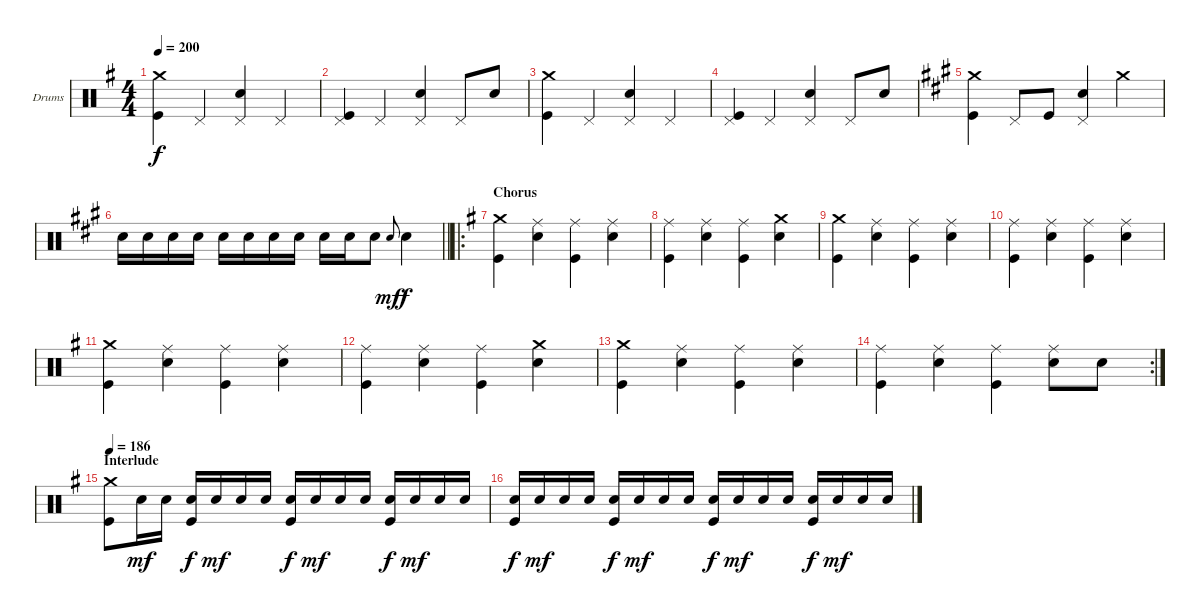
\bracketExtendMode groupsimilarinstruments
\firstSystemTrackNameOrientation horizontal
\otherSystemsTrackNameOrientation horizontal
\track ("Drums" "Drums") {instrument percussion}
\staff {score}
\articulation defaults
\ts (4 4)
\tempo 200
\clef neutral
\ks g
("Crash medium (hit)" "Kick (hit)").4{dy f} "Pedal Hi-Hat (hit)".4 ("Pedal Hi-Hat (hit)" "Snare (hit) 2").4 "Pedal Hi-Hat (hit)".4 |
("Pedal Hi-Hat (hit)" "Kick (hit)").4 "Pedal Hi-Hat (hit)".4 ("Pedal Hi-Hat (hit)" "Snare (hit) 2").4 "Pedal Hi-Hat (hit)".8 "Snare (hit) 2".8 |
("Crash medium (hit)" "Kick (hit)").4 "Pedal Hi-Hat (hit)".4 ("Pedal Hi-Hat (hit)" "Snare (hit) 2").4 "Pedal Hi-Hat (hit)".4 |
("Pedal Hi-Hat (hit)" "Kick (hit)").4 "Pedal Hi-Hat (hit)".4 ("Pedal Hi-Hat (hit)" "Snare (hit) 2").4 "Pedal Hi-Hat (hit)".8 "Snare (hit) 2".8 |
\ks a
("Crash medium (hit)" "Kick (hit)").4 "Pedal Hi-Hat (hit)".8 "Kick (hit)".8 ("Pedal Hi-Hat (hit)" "Snare (hit) 2").4 "Crash medium (hit)".4 |
\barLineRight lightlight "Snare (hit) 2".16 "Snare (hit) 2".16 "Snare (hit) 2".16 "Snare (hit) 2".16 "Snare (hit) 2".16 "Snare (hit) 2".16 "Snare (hit) 2".16 "Snare (hit) 2".16 "Snare (hit) 2".16 "Snare (hit) 2".16 "Snare (hit) 2".8 "Snare (hit) 2".8{gr onbeat dy mf} "Snare (hit) 2".4{dy f}
|
\ro
\section ("" "Chorus")
\ks g
("Crash medium (hit)" "Kick (hit)").4 ("Ride (middle)" "Snare (hit) 2").4 ("Ride (middle)" "Kick (hit)").4 ("Ride (middle)" "Snare (hit) 2").4 |
("Ride (middle)" "Kick (hit)").4 ("Ride (middle)" "Snare (hit) 2").4 ("Ride (middle)" "Kick (hit)").4 ("Crash medium (hit)" "Snare (hit) 2").4 |
("Crash medium (hit)" "Kick (hit)").4 ("Ride (middle)" "Snare (hit) 2").4 ("Ride (middle)" "Kick (hit)").4 ("Ride (middle)" "Snare (hit) 2").4 |
("Ride (middle)" "Kick (hit)").4 ("Ride (middle)" "Snare (hit) 2").4 ("Ride (middle)" "Kick (hit)").4 ("Ride (middle)" "Snare (hit) 2").4 |
("Crash medium (hit)" "Kick (hit)").4 ("Ride (middle)" "Snare (hit) 2").4 ("Ride (middle)" "Kick (hit)").4 ("Ride (middle)" "Snare (hit) 2").4 |
("Ride (middle)" "Kick (hit)").4 ("Ride (middle)" "Snare (hit) 2").4 ("Ride (middle)" "Kick (hit)").4 ("Crash medium (hit)" "Snare (hit) 2").4 |
("Crash medium (hit)" "Kick (hit)").4 ("Ride (middle)" "Snare (hit) 2").4 ("Ride (middle)" "Kick (hit)").4 ("Ride (middle)" "Snare (hit) 2").4 |
\rc 2
("Ride (middle)" "Kick (hit)").4 ("Ride (middle)" "Snare (hit) 2").4 ("Ride (middle)" "Kick (hit)").4 ("Ride (middle)" "Snare (hit) 2").8 "Snare (hit) 2".8 |
\section ("" "Interlude")
\tempo 186
("Kick (hit)" "Crash medium (hit)").8 "Snare (hit) 2".16{dy mf} "Snare (hit) 2".16 ("Kick (hit)" "Snare (hit) 2").16{dy f} "Snare (hit) 2".16{dy mf} "Snare (hit) 2".16 "Snare (hit) 2".16 ("Kick (hit)" "Snare (hit) 2").16{dy f} "Snare (hit) 2".16{dy mf} "Snare (hit) 2".16 "Snare (hit) 2".16 ("Kick (hit)" "Snare (hit) 2").16{dy f} "Snare (hit) 2".16{dy mf} "Snare (hit) 2".16 "Snare (hit) 2".16 |
("Kick (hit)" "Snare (hit) 2").16{dy f} "Snare (hit) 2".16{dy mf} "Snare (hit) 2".16 "Snare (hit) 2".16 ("Kick (hit)" "Snare (hit) 2").16{dy f} "Snare (hit) 2".16{dy mf} "Snare (hit) 2".16 "Snare (hit) 2".16 ("Kick (hit)" "Snare (hit) 2").16{dy f} "Snare (hit) 2".16{dy mf} "Snare (hit) 2".16 "Snare (hit) 2".16 ("Kick (hit)" "Snare (hit) 2").16{dy f} "Snare (hit) 2".16{dy mf} "Snare (hit) 2".16 "Snare (hit) 2".16
